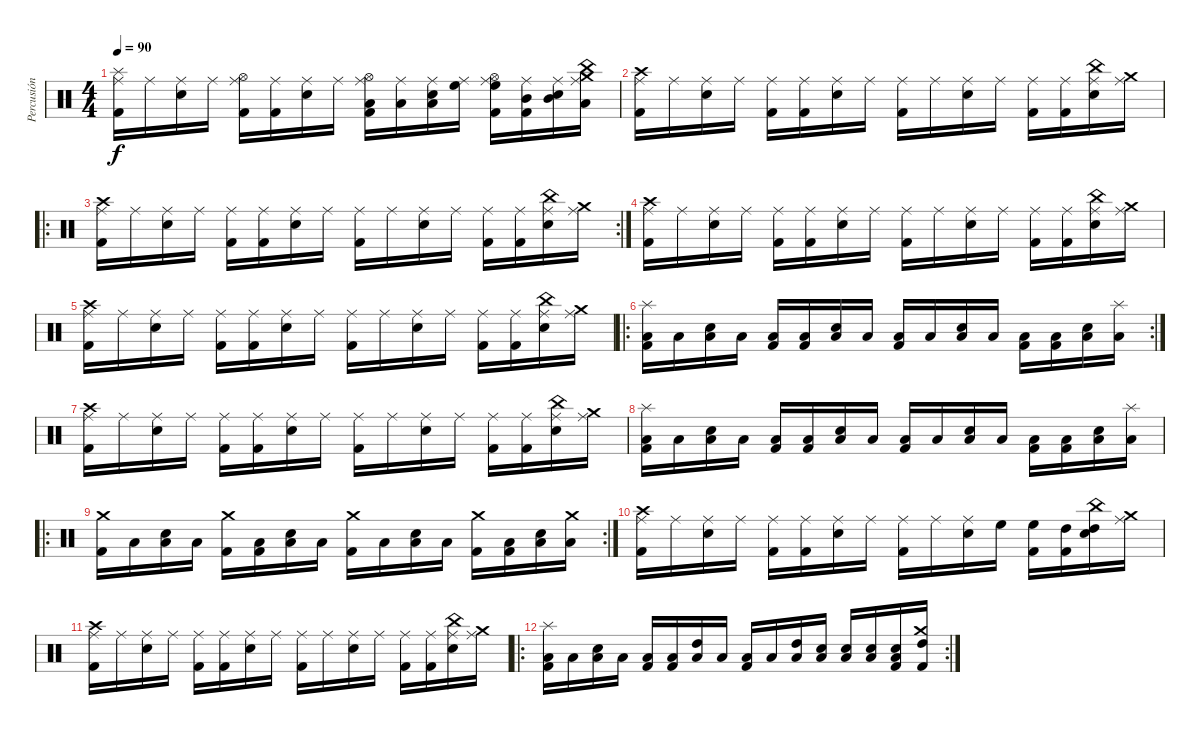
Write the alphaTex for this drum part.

\track ("Percusión" "Percusión") {instrument percussion}
\staff {score}
\articulation defaults
\ts (4 4)
\tempo 90
\clef neutral
\ks c
("Splash (hit)" "Ride (middle)" "Kick (hit) 2").16{dy f} "Ride (middle)".16 ("Ride (middle)" "Electric Snare (hit)").16 "Ride (middle)".16 ("Hi-Hat (open)" "Ride (middle)" "Kick (hit) 2").16 ("Ride (middle)" "Kick (hit) 2").16 ("Ride (middle)" "Electric Snare (hit)").16 "Ride (middle)".16 ("Hi-Hat (open)" "Ride (middle)" "Kick (hit) 2" "Low Tom (hit)").16 ("Ride (middle)" "Low Tom (hit)").16 ("Ride (middle)" "Electric Snare (hit)" "Low Tom (hit)").16 ("Ride (middle)" "High Floor Tom (hit)").16 ("Hi-Hat (open)" "Ride (middle)" "Kick (hit) 2" "High Floor Tom (hit)").16 ("Ride (middle)" "Kick (hit) 2" "Mid Tom (hit)").16 ("Ride (middle)" "Electric Snare (hit)" "Mid Tom (hit)").16 ("China (hit)" "Ride (middle)" "Crash medium (hit)" "Low Tom (hit)").16 |
("Crash high (hit)" "Ride (middle)" "Kick (hit) 2").16 "Ride (middle)".16 ("Ride (middle)" "Electric Snare (hit)").16 "Ride (middle)".16 ("Ride (middle)" "Kick (hit) 2").16 ("Ride (middle)" "Kick (hit) 2").16 ("Ride (middle)" "Electric Snare (hit)").16 "Ride (middle)".16 ("Ride (middle)" "Kick (hit) 2").16 "Ride (middle)".16 ("Ride (middle)" "Electric Snare (hit)").16 "Ride (middle)".16 ("Ride (middle)" "Kick (hit) 2").16 ("Ride (middle)" "Kick (hit) 2").16 ("China (hit)" "Ride (middle)" "Electric Snare (hit)").16 ("Crash medium (hit)" "Ride (middle)").16 |
\ro
\rc 2
("Crash high (hit)" "Ride (middle)" "Kick (hit) 2").16 "Ride (middle)".16 ("Ride (middle)" "Electric Snare (hit)").16 "Ride (middle)".16 ("Ride (middle)" "Kick (hit) 2").16 ("Ride (middle)" "Kick (hit) 2").16 ("Ride (middle)" "Electric Snare (hit)").16 "Ride (middle)".16 ("Ride (middle)" "Kick (hit) 2").16 "Ride (middle)".16 ("Ride (middle)" "Electric Snare (hit)").16 "Ride (middle)".16 ("Ride (middle)" "Kick (hit) 2").16 ("Ride (middle)" "Kick (hit) 2").16 ("China (hit)" "Ride (middle)" "Electric Snare (hit)").16 ("Crash medium (hit)" "Ride (middle)").16 |
("Crash high (hit)" "Ride (middle)" "Kick (hit) 2").16 "Ride (middle)".16 ("Ride (middle)" "Electric Snare (hit)").16 "Ride (middle)".16 ("Ride (middle)" "Kick (hit) 2").16 ("Ride (middle)" "Kick (hit) 2").16 ("Ride (middle)" "Electric Snare (hit)").16 "Ride (middle)".16 ("Ride (middle)" "Kick (hit) 2").16 "Ride (middle)".16 ("Ride (middle)" "Electric Snare (hit)").16 "Ride (middle)".16 ("Ride (middle)" "Kick (hit) 2").16 ("Ride (middle)" "Kick (hit) 2").16 ("China (hit)" "Ride (middle)" "Electric Snare (hit)").16 ("Crash medium (hit)" "Ride (middle)").16 |
("Crash high (hit)" "Ride (middle)" "Kick (hit) 2").16 "Ride (middle)".16 ("Ride (middle)" "Electric Snare (hit)").16 "Ride (middle)".16 ("Ride (middle)" "Kick (hit) 2").16 ("Ride (middle)" "Kick (hit) 2").16 ("Ride (middle)" "Electric Snare (hit)").16 "Ride (middle)".16 ("Ride (middle)" "Kick (hit) 2").16 "Ride (middle)".16 ("Ride (middle)" "Electric Snare (hit)").16 "Ride (middle)".16 ("Ride (middle)" "Kick (hit) 2").16 ("Ride (middle)" "Kick (hit) 2").16 ("China (hit)" "Ride (middle)" "Electric Snare (hit)").16 ("Crash medium (hit)" "Ride (middle)").16 |
\ro
\rc 2
("Splash (hit)" "Low Tom (hit)" "Kick (hit) 2").16 "Low Tom (hit)".16 ("Low Tom (hit)" "Electric Snare (hit)").16 "Low Tom (hit)".16 ("Low Tom (hit)" "Kick (hit) 2").16 ("Low Tom (hit)" "Kick (hit) 2").16 ("Low Tom (hit)" "Electric Snare (hit)").16 "Low Tom (hit)".16 ("Low Tom (hit)" "Kick (hit) 2").16 "Low Tom (hit)".16 ("Low Tom (hit)" "Electric Snare (hit)").16 "Low Tom (hit)".16 ("Low Tom (hit)" "Kick (hit) 2").16 ("Low Tom (hit)" "Kick (hit) 2").16 ("Low Tom (hit)" "Electric Snare (hit)").16 ("Splash (hit)" "Low Tom (hit)").16 |
("Crash high (hit)" "Ride (middle)" "Kick (hit) 2").16 "Ride (middle)".16 ("Ride (middle)" "Electric Snare (hit)").16 "Ride (middle)".16 ("Ride (middle)" "Kick (hit) 2").16 ("Ride (middle)" "Kick (hit) 2").16 ("Ride (middle)" "Electric Snare (hit)").16 "Ride (middle)".16 ("Ride (middle)" "Kick (hit) 2").16 "Ride (middle)".16 ("Ride (middle)" "Electric Snare (hit)").16 "Ride (middle)".16 ("Ride (middle)" "Kick (hit) 2").16 ("Ride (middle)" "Kick (hit) 2").16 ("China (hit)" "Ride (middle)" "Electric Snare (hit)").16 ("Crash medium (hit)" "Ride (middle)").16 |
("Splash (hit)" "Low Tom (hit)" "Kick (hit) 2").16 "Low Tom (hit)".16 ("Low Tom (hit)" "Electric Snare (hit)").16 "Low Tom (hit)".16 ("Low Tom (hit)" "Kick (hit) 2").16 ("Low Tom (hit)" "Kick (hit) 2").16 ("Low Tom (hit)" "Electric Snare (hit)").16 "Low Tom (hit)".16 ("Low Tom (hit)" "Kick (hit) 2").16 "Low Tom (hit)".16 ("Low Tom (hit)" "Electric Snare (hit)").16 "Low Tom (hit)".16 ("Low Tom (hit)" "Kick (hit) 2").16 ("Low Tom (hit)" "Kick (hit) 2").16 ("Low Tom (hit)" "Electric Snare (hit)").16 ("Splash (hit)" "Low Tom (hit)").16 |
\ro
\rc 2
("Crash medium (hit)" "Kick (hit) 2").16 "Low Tom (hit)".16 ("Low Tom (hit)" "Electric Snare (hit)").16 "Low Tom (hit)".16 ("Crash medium (hit)" "Kick (hit) 2").16 ("Low Tom (hit)" "Kick (hit) 2").16 ("Low Tom (hit)" "Electric Snare (hit)").16 "Low Tom (hit)".16 ("Crash medium (hit)" "Kick (hit) 2").16 "Low Tom (hit)".16 ("Low Tom (hit)" "Electric Snare (hit)").16 "Low Tom (hit)".16 ("Crash medium (hit)" "Kick (hit) 2").16 ("Low Tom (hit)" "Kick (hit) 2").16 ("Low Tom (hit)" "Electric Snare (hit)").16 ("Crash medium (hit)" "Low Tom (hit)").16 |
("Crash high (hit)" "Ride (middle)" "Kick (hit) 2").16 "Ride (middle)".16 ("Ride (middle)" "Electric Snare (hit)").16 "Ride (middle)".16 ("Ride (middle)" "Kick (hit) 2").16 ("Ride (middle)" "Kick (hit) 2").16 ("Ride (middle)" "Electric Snare (hit)").16 "Ride (middle)".16 ("Ride (middle)" "Kick (hit) 2").16 "Ride (middle)".16 ("Ride (middle)" "Electric Snare (hit)").16 "High Floor Tom (hit)".16 ("High Floor Tom (hit)" "Kick (hit) 2").16 ("High Tom (hit)" "Kick (hit) 2").16 ("China (hit)" "High Tom (hit)" "Electric Snare (hit)").16 ("Crash medium (hit)" "Ride (middle)").16 |
("Crash high (hit)" "Ride (middle)" "Kick (hit) 2").16 "Ride (middle)".16 ("Ride (middle)" "Electric Snare (hit)").16 "Ride (middle)".16 ("Ride (middle)" "Kick (hit) 2").16 ("Ride (middle)" "Kick (hit) 2").16 ("Ride (middle)" "Electric Snare (hit)").16 "Ride (middle)".16 ("Ride (middle)" "Kick (hit) 2").16 "Ride (middle)".16 ("Ride (middle)" "Electric Snare (hit)").16 "Ride (middle)".16 ("Ride (middle)" "Kick (hit) 2").16 ("Ride (middle)" "Kick (hit) 2").16 ("China (hit)" "Ride (middle)" "Electric Snare (hit)").16 ("Crash medium (hit)" "Ride (middle)").16 |
\ro
\rc 2
("Splash (hit)" "Low Tom (hit)" "Kick (hit) 2").16 "Low Tom (hit)".16 ("Low Tom (hit)" "Electric Snare (hit)").16 "Low Tom (hit)".16 ("Low Tom (hit)" "Kick (hit) 2").16 ("Low Tom (hit)" "Kick (hit) 2").16 ("High Tom (hit)" "Low Tom (hit)").16 "Low Tom (hit)".16 ("Low Tom (hit)" "Kick (hit) 2").16 "Low Tom (hit)".16 ("High Tom (hit)" "Low Tom (hit)").16 ("Low Tom (hit)" "Electric Snare (hit)").16 ("Low Tom (hit)" "Electric Snare (hit)").16 ("Low Tom (hit)" "Electric Snare (hit)").16 ("Low Tom (hit)" "Electric Snare (hit)" "Kick (hit) 2").16 ("Crash medium (hit)" "High Tom (hit)" "Kick (hit) 2").16
